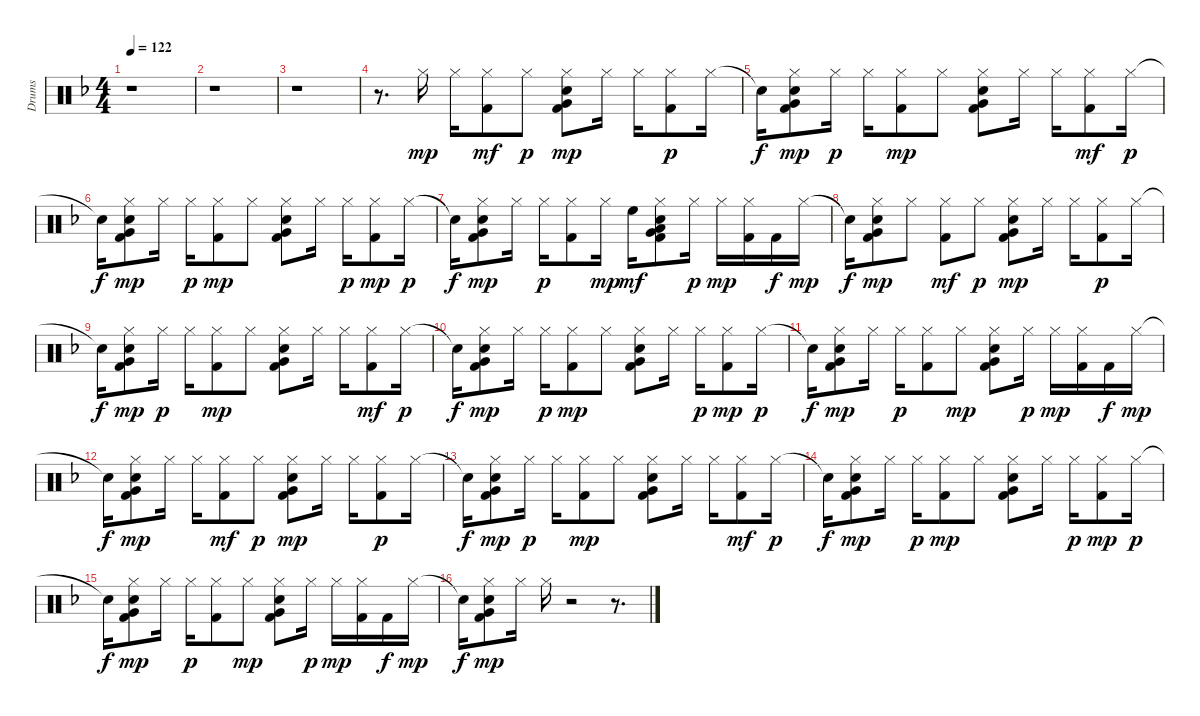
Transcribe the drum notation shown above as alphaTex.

\track ("Drums" "Drums") {instrument percussion}
\staff {score}
\articulation defaults
\ts (4 4)
\tempo 122
\clef neutral
\ks f
r.1{dy mp} |
r.1 |
r.1 |
r.8{d} "Hi-Hat (closed)".16 "Hi-Hat (closed)".16 ("Kick (hit) 2" "Hi-Hat (closed)").8{dy mf} "Hi-Hat (closed)".8{dy p} ("Kick (hit) 2" "Snare (hit) 2" "Hi-Hat (closed)" "Very Low Tom (hit)").8{dy mp} "Hi-Hat (closed)".16 "Hi-Hat (closed)".16 ("Kick (hit) 2" "Hi-Hat (closed)").8{dy p} "Hi-Hat (closed)".16 |
"Snare (hit)"{t}.16{dy f} ("Kick (hit) 2" "Snare (hit) 2" "Hi-Hat (closed)" "Very Low Tom (hit)").8{dy mp} "Hi-Hat (closed)".16{dy p} "Hi-Hat (closed)".16 ("Kick (hit) 2" "Hi-Hat (closed)").8{dy mp} "Hi-Hat (closed)".8 ("Kick (hit) 2" "Snare (hit) 2" "Hi-Hat (closed)" "Very Low Tom (hit)").8 "Hi-Hat (closed)".16 "Hi-Hat (closed)".16 ("Kick (hit) 2" "Hi-Hat (closed)").8{dy mf} "Hi-Hat (closed)".16{dy p} |
"Snare (hit)"{t}.16{dy f} ("Kick (hit) 2" "Snare (hit) 2" "Hi-Hat (closed)" "Very Low Tom (hit)").8{dy mp} "Hi-Hat (closed)".16 "Hi-Hat (closed)".16{dy p} ("Kick (hit) 2" "Hi-Hat (closed)").8{dy mp} "Hi-Hat (closed)".8 ("Kick (hit) 2" "Snare (hit) 2" "Hi-Hat (closed)" "Very Low Tom (hit)").8 "Hi-Hat (closed)".16 "Hi-Hat (closed)".16{dy p} ("Kick (hit) 2" "Hi-Hat (closed)").8{dy mp} "Hi-Hat (closed)".16{dy p} |
"Snare (hit)"{t}.16{dy f} ("Kick (hit) 2" "Snare (hit) 2" "Hi-Hat (closed)" "Very Low Tom (hit)").8{dy mp} "Hi-Hat (closed)".16 "Hi-Hat (closed)".16{dy p} ("Kick (hit) 2" "Hi-Hat (closed)").8 "Hi-Hat (closed)".16{dy mp} "High Floor Tom (hit)".16{dy mf} ("Kick (hit) 2" "Snare (hit) 2" "Hi-Hat (closed)" "Very Low Tom (hit)" "Low Tom (hit)").8 "Hi-Hat (closed)".16{dy p} "Hi-Hat (closed)".16{dy mp} ("Kick (hit) 2" "Hi-Hat (closed)").16 "Kick (hit) 2".16{dy f} "Hi-Hat (closed)".16{dy mp} |
"Snare (hit)"{t}.16{dy f} ("Kick (hit) 2" "Snare (hit) 2" "Hi-Hat (closed)" "Very Low Tom (hit)").8{dy mp} "Hi-Hat (closed)".8 ("Kick (hit) 2" "Hi-Hat (closed)").8{dy mf} "Hi-Hat (closed)".8{dy p} ("Kick (hit) 2" "Snare (hit) 2" "Hi-Hat (closed)" "Very Low Tom (hit)").8{dy mp} "Hi-Hat (closed)".16 "Hi-Hat (closed)".16 ("Kick (hit) 2" "Hi-Hat (closed)").8{dy p} "Hi-Hat (closed)".16 |
"Snare (hit)"{t}.16{dy f} ("Kick (hit) 2" "Snare (hit) 2" "Hi-Hat (closed)" "Very Low Tom (hit)").8{dy mp} "Hi-Hat (closed)".16{dy p} "Hi-Hat (closed)".16 ("Kick (hit) 2" "Hi-Hat (closed)").8{dy mp} "Hi-Hat (closed)".8 ("Kick (hit) 2" "Snare (hit) 2" "Hi-Hat (closed)" "Very Low Tom (hit)").8 "Hi-Hat (closed)".16 "Hi-Hat (closed)".16 ("Kick (hit) 2" "Hi-Hat (closed)").8{dy mf} "Hi-Hat (closed)".16{dy p} |
"Snare (hit)"{t}.16{dy f} ("Kick (hit) 2" "Snare (hit) 2" "Hi-Hat (closed)" "Very Low Tom (hit)").8{dy mp} "Hi-Hat (closed)".16 "Hi-Hat (closed)".16{dy p} ("Kick (hit) 2" "Hi-Hat (closed)").8{dy mp} "Hi-Hat (closed)".8 ("Kick (hit) 2" "Snare (hit) 2" "Hi-Hat (closed)" "Very Low Tom (hit)").8 "Hi-Hat (closed)".16 "Hi-Hat (closed)".16{dy p} ("Kick (hit) 2" "Hi-Hat (closed)").8{dy mp} "Hi-Hat (closed)".16{dy p} |
"Snare (hit)"{t}.16{dy f} ("Kick (hit) 2" "Snare (hit) 2" "Hi-Hat (closed)" "Very Low Tom (hit)").8{dy mp} "Hi-Hat (closed)".16 "Hi-Hat (closed)".16{dy p} ("Kick (hit) 2" "Hi-Hat (closed)").8 "Hi-Hat (closed)".8{dy mp} ("Kick (hit) 2" "Snare (hit) 2" "Hi-Hat (closed)" "Very Low Tom (hit)").8 "Hi-Hat (closed)".16{dy p} "Hi-Hat (closed)".16{dy mp} ("Kick (hit) 2" "Hi-Hat (closed)").16 "Kick (hit) 2".16{dy f} "Hi-Hat (closed)".16{dy mp} |
"Snare (hit)"{t}.16{dy f} ("Kick (hit) 2" "Snare (hit) 2" "Hi-Hat (closed)" "Very Low Tom (hit)").8{dy mp} "Hi-Hat (closed)".16 "Hi-Hat (closed)".16 ("Kick (hit) 2" "Hi-Hat (closed)").8{dy mf} "Hi-Hat (closed)".8{dy p} ("Kick (hit) 2" "Snare (hit) 2" "Hi-Hat (closed)" "Very Low Tom (hit)").8{dy mp} "Hi-Hat (closed)".16 "Hi-Hat (closed)".16 ("Kick (hit) 2" "Hi-Hat (closed)").8{dy p} "Hi-Hat (closed)".16 |
"Snare (hit)"{t}.16{dy f} ("Kick (hit) 2" "Snare (hit) 2" "Hi-Hat (closed)" "Very Low Tom (hit)").8{dy mp} "Hi-Hat (closed)".16{dy p} "Hi-Hat (closed)".16 ("Kick (hit) 2" "Hi-Hat (closed)").8{dy mp} "Hi-Hat (closed)".8 ("Kick (hit) 2" "Snare (hit) 2" "Hi-Hat (closed)" "Very Low Tom (hit)").8 "Hi-Hat (closed)".16 "Hi-Hat (closed)".16 ("Kick (hit) 2" "Hi-Hat (closed)").8{dy mf} "Hi-Hat (closed)".16{dy p} |
"Snare (hit)"{t}.16{dy f} ("Kick (hit) 2" "Snare (hit) 2" "Hi-Hat (closed)" "Very Low Tom (hit)").8{dy mp} "Hi-Hat (closed)".16 "Hi-Hat (closed)".16{dy p} ("Kick (hit) 2" "Hi-Hat (closed)").8{dy mp} "Hi-Hat (closed)".8 ("Kick (hit) 2" "Snare (hit) 2" "Hi-Hat (closed)" "Very Low Tom (hit)").8 "Hi-Hat (closed)".16 "Hi-Hat (closed)".16{dy p} ("Kick (hit) 2" "Hi-Hat (closed)").8{dy mp} "Hi-Hat (closed)".16{dy p} |
"Snare (hit)"{t}.16{dy f} ("Kick (hit) 2" "Snare (hit) 2" "Hi-Hat (closed)" "Very Low Tom (hit)").8{dy mp} "Hi-Hat (closed)".16 "Hi-Hat (closed)".16{dy p} ("Kick (hit) 2" "Hi-Hat (closed)").8 "Hi-Hat (closed)".8{dy mp} ("Kick (hit) 2" "Snare (hit) 2" "Hi-Hat (closed)" "Very Low Tom (hit)").8 "Hi-Hat (closed)".16{dy p} "Hi-Hat (closed)".16{dy mp} ("Kick (hit) 2" "Hi-Hat (closed)").16 "Kick (hit) 2".16{dy f} "Hi-Hat (closed)".16{dy mp} |
"Snare (hit)"{t}.16{dy f} ("Kick (hit) 2" "Snare (hit) 2" "Hi-Hat (closed)" "Very Low Tom (hit)").8{dy mp} "Hi-Hat (closed)".16 "Hi-Hat (closed)".16 r.2 r.8{d}
